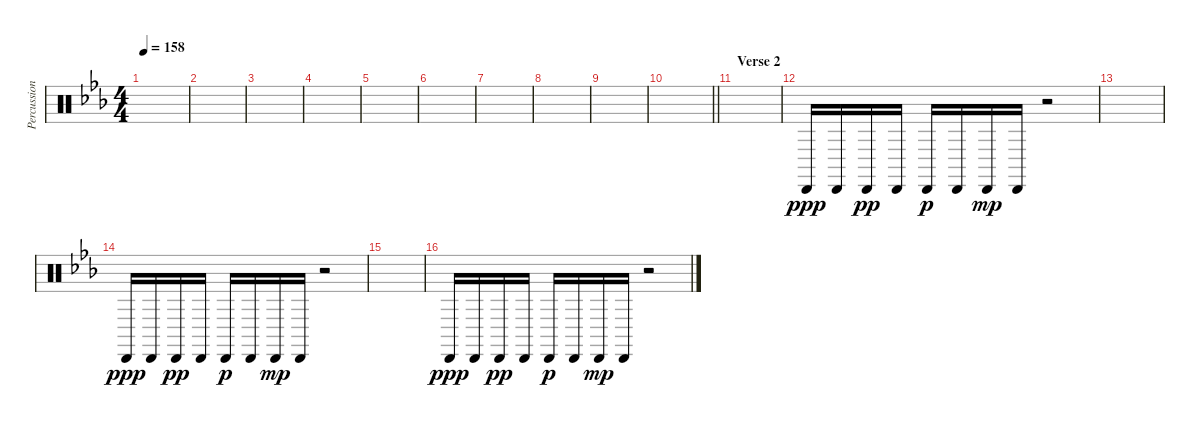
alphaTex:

\track ("Percussion" "Percussion") {instrument percussion}
\staff {score}
\articulation defaults
\ts (4 4)
\tempo 158
\clef neutral
\ks eb
|
|
|
|
|
|
|
|
|
\barLineRight lightlight
|
\section ("" "Verse 2")
|
"Cabasa (hit)".16{dy ppp} "Cabasa (hit)".16 "Cabasa (hit)".16{dy pp} "Cabasa (hit)".16 "Cabasa (hit)".16{dy p} "Cabasa (hit)".16 "Cabasa (hit)".16{dy mp} "Cabasa (hit)".16 r.2 |
|
"Cabasa (hit)".16{dy ppp} "Cabasa (hit)".16 "Cabasa (hit)".16{dy pp} "Cabasa (hit)".16 "Cabasa (hit)".16{dy p} "Cabasa (hit)".16 "Cabasa (hit)".16{dy mp} "Cabasa (hit)".16 r.2 |
|
"Cabasa (hit)".16{dy ppp} "Cabasa (hit)".16 "Cabasa (hit)".16{dy pp} "Cabasa (hit)".16 "Cabasa (hit)".16{dy p} "Cabasa (hit)".16 "Cabasa (hit)".16{dy mp} "Cabasa (hit)".16 r.2
